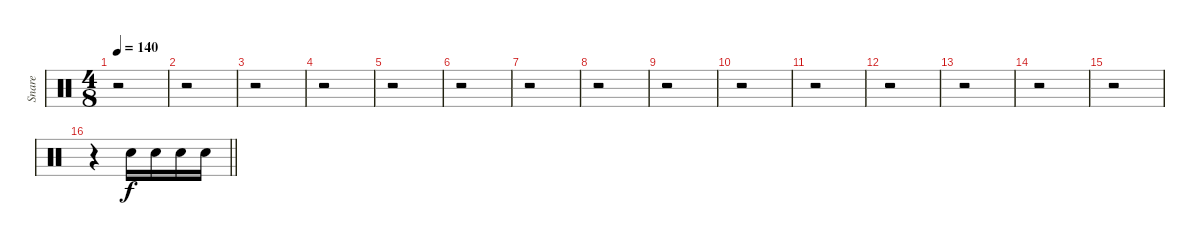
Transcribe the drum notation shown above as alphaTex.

\track ("Snare" "Snare") {instrument percussion}
\staff {score}
\articulation defaults
\ts (4 8)
\tempo 140
\clef neutral
\ks c
r.2{dy f} |
r.2 |
r.2 |
r.2 |
r.2 |
r.2 |
r.2 |
r.2 |
r.2 |
r.2 |
r.2 |
r.2 |
r.2 |
r.2 |
r.2 |
\barLineRight lightlight
r.4 "Snare (hit) 2".16 "Snare (hit) 2".16 "Snare (hit) 2".16 "Snare (hit) 2".16
